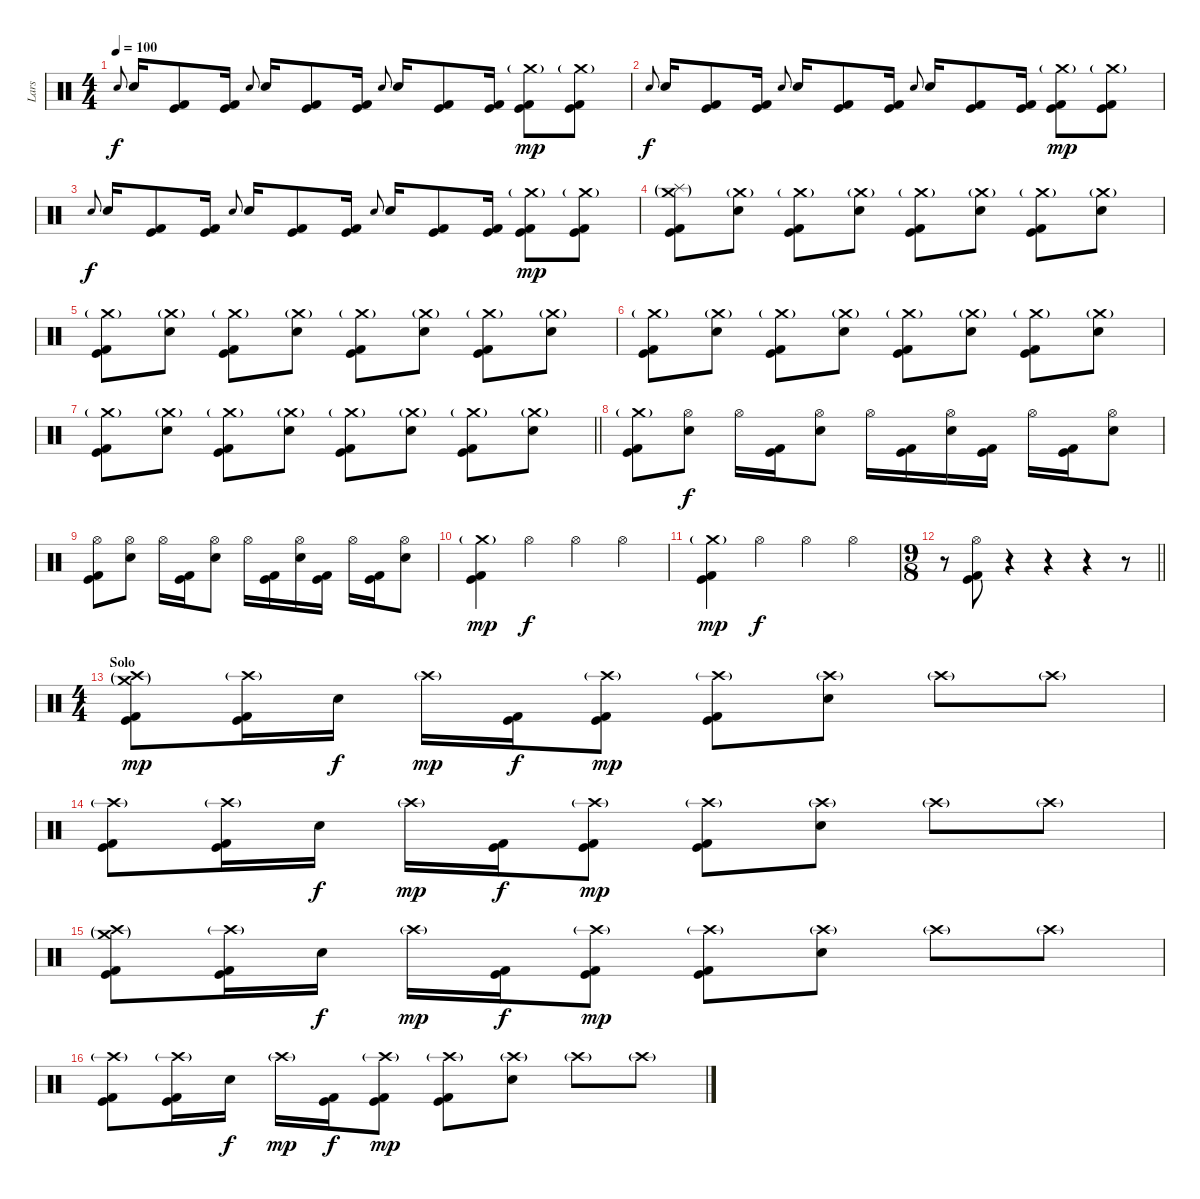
\track ("Lars" "Lars") {instrument percussion}
\staff {score}
\articulation defaults
\ts (4 4)
\tempo 100
\clef neutral
\ks c "Electric Snare (hit)".8{gr onbeat dy f} "Electric Snare (hit)".16
("Kick (hit)" "Kick (hit) 2").8 ("Kick (hit)" "Kick (hit) 2").16 "Electric Snare (hit)".8{gr onbeat} "Electric Snare (hit)".16 ("Kick (hit)" "Kick (hit) 2").8 ("Kick (hit)" "Kick (hit) 2").16 "Electric Snare (hit)".8{gr onbeat} "Electric Snare (hit)".16 ("Kick (hit)" "Kick (hit) 2").8 ("Kick (hit)" "Kick (hit) 2").16 ("Crash medium (hit)"{g} "Kick (hit)" "Kick (hit) 2").8{dy mp} ("Crash medium (hit)"{g} "Kick (hit)" "Kick (hit) 2").8 |
"Electric Snare (hit)".8{gr onbeat dy f} "Electric Snare (hit)".16 ("Kick (hit)" "Kick (hit) 2").8 ("Kick (hit)" "Kick (hit) 2").16 "Electric Snare (hit)".8{gr onbeat} "Electric Snare (hit)".16 ("Kick (hit)" "Kick (hit) 2").8 ("Kick (hit)" "Kick (hit) 2").16 "Electric Snare (hit)".8{gr onbeat} "Electric Snare (hit)".16 ("Kick (hit)" "Kick (hit) 2").8 ("Kick (hit)" "Kick (hit) 2").16 ("Crash medium (hit)"{g} "Kick (hit)" "Kick (hit) 2").8{dy mp} ("Crash medium (hit)"{g} "Kick (hit)" "Kick (hit) 2").8 |
"Electric Snare (hit)".8{gr onbeat dy f} "Electric Snare (hit)".16 ("Kick (hit)" "Kick (hit) 2").8 ("Kick (hit)" "Kick (hit) 2").16 "Electric Snare (hit)".8{gr onbeat} "Electric Snare (hit)".16 ("Kick (hit)" "Kick (hit) 2").8 ("Kick (hit)" "Kick (hit) 2").16 "Electric Snare (hit)".8{gr onbeat} "Electric Snare (hit)".16 ("Kick (hit)" "Kick (hit) 2").8 ("Kick (hit)" "Kick (hit) 2").16 ("Crash medium (hit)"{g} "Kick (hit)" "Kick (hit) 2").8{dy mp} ("Crash medium (hit)"{g} "Kick (hit)" "Kick (hit) 2").8 |
("Crash medium (hit)"{g} "Splash (hit)"{g} "Kick (hit)" "Kick (hit) 2").8 ("Crash medium (hit)"{g} "Electric Snare (hit)").8 ("Crash medium (hit)"{g} "Kick (hit)" "Kick (hit) 2").8 ("Crash medium (hit)"{g} "Electric Snare (hit)").8 ("Crash medium (hit)"{g} "Kick (hit)" "Kick (hit) 2").8 ("Crash medium (hit)"{g} "Electric Snare (hit)").8 ("Crash medium (hit)"{g} "Kick (hit)" "Kick (hit) 2").8 ("Crash medium (hit)"{g} "Electric Snare (hit)").8 |
("Crash medium (hit)"{g} "Kick (hit)" "Kick (hit) 2").8 ("Crash medium (hit)"{g} "Electric Snare (hit)").8 ("Crash medium (hit)"{g} "Kick (hit)" "Kick (hit) 2").8 ("Crash medium (hit)"{g} "Electric Snare (hit)").8 ("Crash medium (hit)"{g} "Kick (hit)" "Kick (hit) 2").8 ("Crash medium (hit)"{g} "Electric Snare (hit)").8 ("Crash medium (hit)"{g} "Kick (hit)" "Kick (hit) 2").8 ("Crash medium (hit)"{g} "Electric Snare (hit)").8 |
("Crash medium (hit)"{g} "Kick (hit)" "Kick (hit) 2").8 ("Crash medium (hit)"{g} "Electric Snare (hit)").8 ("Crash medium (hit)"{g} "Kick (hit)" "Kick (hit) 2").8 ("Crash medium (hit)"{g} "Electric Snare (hit)").8 ("Crash medium (hit)"{g} "Kick (hit)" "Kick (hit) 2").8 ("Crash medium (hit)"{g} "Electric Snare (hit)").8 ("Crash medium (hit)"{g} "Kick (hit)" "Kick (hit) 2").8 ("Crash medium (hit)"{g} "Electric Snare (hit)").8 |
\barLineRight lightlight
("Crash medium (hit)"{g} "Kick (hit)" "Kick (hit) 2").8 ("Crash medium (hit)"{g} "Electric Snare (hit)").8 ("Crash medium (hit)"{g} "Kick (hit)" "Kick (hit) 2").8 ("Crash medium (hit)"{g} "Electric Snare (hit)").8 ("Crash medium (hit)"{g} "Kick (hit)" "Kick (hit) 2").8 ("Crash medium (hit)"{g} "Electric Snare (hit)").8 ("Crash medium (hit)"{g} "Kick (hit)" "Kick (hit) 2").8 ("Crash medium (hit)"{g} "Electric Snare (hit)").8 |
\section ("" "")
("Crash medium (hit)"{g} "Kick (hit)" "Kick (hit) 2").8 ("Hi-Hat (open)" "Electric Snare (hit)").8{dy f} "Hi-Hat (open)".16 ("Kick (hit)" "Kick (hit) 2").16 ("Hi-Hat (open)" "Electric Snare (hit)").8 "Hi-Hat (open)".16 ("Kick (hit)" "Kick (hit) 2").16 ("Hi-Hat (open)" "Electric Snare (hit)").16 ("Kick (hit)" "Kick (hit) 2").16 "Hi-Hat (open)".16 ("Kick (hit)" "Kick (hit) 2").16 ("Hi-Hat (open)" "Electric Snare (hit)").8 |
("Hi-Hat (open)" "Kick (hit)" "Kick (hit) 2").8 ("Hi-Hat (open)" "Electric Snare (hit)").8 "Hi-Hat (open)".16 ("Kick (hit)" "Kick (hit) 2").16 ("Hi-Hat (open)" "Electric Snare (hit)").8 "Hi-Hat (open)".16 ("Kick (hit)" "Kick (hit) 2").16 ("Hi-Hat (open)" "Electric Snare (hit)").16 ("Kick (hit)" "Kick (hit) 2").16 "Hi-Hat (open)".16 ("Kick (hit)" "Kick (hit) 2").16 ("Hi-Hat (open)" "Electric Snare (hit)").8 |
("Crash medium (hit)"{g} "Kick (hit)" "Kick (hit) 2").4{dy mp} "Hi-Hat (open)".4{dy f} "Hi-Hat (open)".4 "Hi-Hat (open)".4 |
("Crash medium (hit)"{g} "Kick (hit)" "Kick (hit) 2").4{dy mp} "Hi-Hat (open)".4{dy f} "Hi-Hat (open)".4 "Hi-Hat (open)".4 |
\ts (9 8)
\barLineRight lightlight
r.8 ("Hi-Hat (open)" "Kick (hit)" "Kick (hit) 2").8 r.4 r.4 r.4 r.8 |
\ts (4 4)
\section ("" "Solo")
("Crash high (hit)"{g} "Crash medium (hit)"{g} "Kick (hit)" "Kick (hit) 2").8{dy mp} ("Crash high (hit)"{g} "Kick (hit)" "Kick (hit) 2").16 "Electric Snare (hit)".16{dy f} "Crash high (hit)"{g}.16{dy mp} ("Kick (hit)" "Kick (hit) 2").16{dy f} ("Crash high (hit)"{g} "Kick (hit)" "Kick (hit) 2").8{dy mp} ("Crash high (hit)"{g} "Kick (hit)" "Kick (hit) 2").8 ("Crash high (hit)"{g} "Electric Snare (hit)").8 "Crash high (hit)"{g}.8 "Crash high (hit)"{g}.8 |
("Crash high (hit)"{g} "Kick (hit)" "Kick (hit) 2").8 ("Crash high (hit)"{g} "Kick (hit)" "Kick (hit) 2").16 "Electric Snare (hit)".16{dy f} "Crash high (hit)"{g}.16{dy mp} ("Kick (hit)" "Kick (hit) 2").16{dy f} ("Crash high (hit)"{g} "Kick (hit)" "Kick (hit) 2").8{dy mp} ("Crash high (hit)"{g} "Kick (hit)" "Kick (hit) 2").8 ("Crash high (hit)"{g} "Electric Snare (hit)").8 "Crash high (hit)"{g}.8 "Crash high (hit)"{g}.8 |
("Crash high (hit)"{g} "Crash medium (hit)"{g} "Kick (hit)" "Kick (hit) 2").8 ("Crash high (hit)"{g} "Kick (hit)" "Kick (hit) 2").16 "Electric Snare (hit)".16{dy f} "Crash high (hit)"{g}.16{dy mp} ("Kick (hit)" "Kick (hit) 2").16{dy f} ("Crash high (hit)"{g} "Kick (hit)" "Kick (hit) 2").8{dy mp} ("Crash high (hit)"{g} "Kick (hit)" "Kick (hit) 2").8 ("Crash high (hit)"{g} "Electric Snare (hit)").8 "Crash high (hit)"{g}.8 "Crash high (hit)"{g}.8 |
("Crash high (hit)"{g} "Kick (hit)" "Kick (hit) 2").8 ("Crash high (hit)"{g} "Kick (hit)" "Kick (hit) 2").16 "Electric Snare (hit)".16{dy f} "Crash high (hit)"{g}.16{dy mp} ("Kick (hit)" "Kick (hit) 2").16{dy f} ("Crash high (hit)"{g} "Kick (hit)" "Kick (hit) 2").8{dy mp} ("Crash high (hit)"{g} "Kick (hit)" "Kick (hit) 2").8 ("Crash high (hit)"{g} "Electric Snare (hit)").8 "Crash high (hit)"{g}.8 "Crash high (hit)"{g}.8
